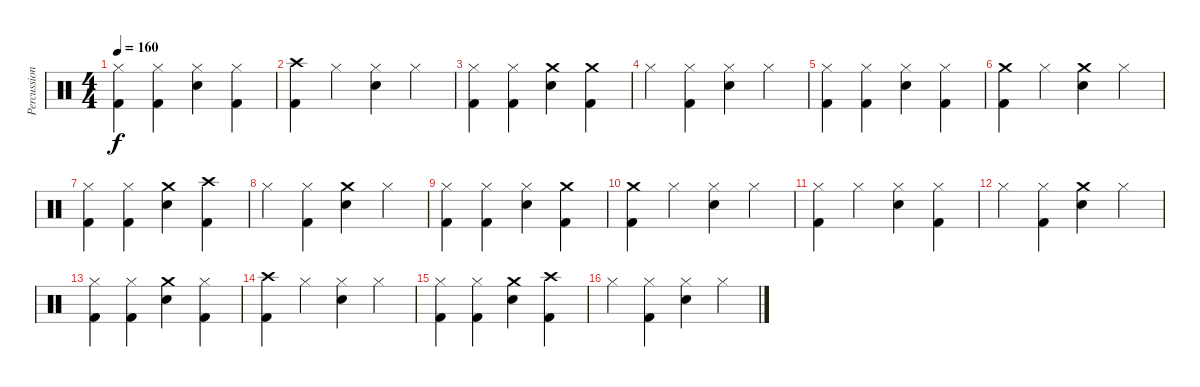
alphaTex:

\track ("Percussion" "Percussion") {instrument percussion}
\staff {score}
\articulation defaults
\ts (4 4)
\tempo 160
\clef neutral
\ks c
("Hi-Hat (closed)" "Kick (hit) 2").4{dy f} ("Hi-Hat (closed)" "Kick (hit) 2").4 ("Hi-Hat (closed)" "Snare (hit) 2").4 ("Hi-Hat (closed)" "Kick (hit) 2").4 |
("Crash high (hit)" "Kick (hit) 2").4 "Hi-Hat (closed)".4 ("Hi-Hat (closed)" "Snare (hit) 2").4 "Hi-Hat (closed)".4 |
("Hi-Hat (closed)" "Kick (hit) 2").4 ("Hi-Hat (closed)" "Kick (hit) 2").4 ("Crash medium (hit)" "Snare (hit) 2").4 ("Crash medium (hit)" "Kick (hit) 2").4 |
"Hi-Hat (closed)".4 ("Hi-Hat (closed)" "Kick (hit) 2").4 ("Hi-Hat (closed)" "Snare (hit) 2").4 "Hi-Hat (closed)".4 |
("Hi-Hat (closed)" "Kick (hit) 2").4 ("Hi-Hat (closed)" "Kick (hit) 2").4 ("Hi-Hat (closed)" "Snare (hit) 2").4 ("Hi-Hat (closed)" "Kick (hit) 2").4 |
("Crash medium (hit)" "Kick (hit) 2").4 "Hi-Hat (closed)".4 ("Crash medium (hit)" "Snare (hit) 2").4 "Hi-Hat (closed)".4 |
("Hi-Hat (closed)" "Kick (hit) 2").4 ("Hi-Hat (closed)" "Kick (hit) 2").4 ("Crash medium (hit)" "Snare (hit) 2").4 ("Crash high (hit)" "Kick (hit) 2").4 |
"Hi-Hat (closed)".4 ("Hi-Hat (closed)" "Kick (hit) 2").4 ("Crash medium (hit)" "Snare (hit) 2").4 "Hi-Hat (closed)".4 |
("Hi-Hat (closed)" "Kick (hit) 2").4 ("Hi-Hat (closed)" "Kick (hit) 2").4 ("Hi-Hat (closed)" "Snare (hit) 2").4 ("Crash medium (hit)" "Kick (hit) 2").4 |
("Crash medium (hit)" "Kick (hit) 2").4 "Hi-Hat (closed)".4 ("Hi-Hat (closed)" "Snare (hit) 2").4 "Hi-Hat (closed)".4 |
("Hi-Hat (closed)" "Kick (hit) 2").4 "Hi-Hat (closed)".4 ("Hi-Hat (closed)" "Snare (hit) 2").4 ("Hi-Hat (closed)" "Kick (hit) 2").4 |
"Hi-Hat (closed)".4 ("Hi-Hat (closed)" "Kick (hit) 2").4 ("Crash medium (hit)" "Snare (hit) 2").4 "Hi-Hat (closed)".4 |
("Hi-Hat (closed)" "Kick (hit) 2").4 ("Hi-Hat (closed)" "Kick (hit) 2").4 ("Crash medium (hit)" "Snare (hit) 2").4 ("Hi-Hat (closed)" "Kick (hit) 2").4 |
("Crash high (hit)" "Kick (hit) 2").4 "Hi-Hat (closed)".4 ("Hi-Hat (closed)" "Snare (hit) 2").4 "Hi-Hat (closed)".4 |
("Hi-Hat (closed)" "Kick (hit) 2").4 ("Hi-Hat (closed)" "Kick (hit) 2").4 ("Crash medium (hit)" "Snare (hit) 2").4 ("Crash high (hit)" "Kick (hit) 2").4 |
"Hi-Hat (closed)".4 ("Hi-Hat (closed)" "Kick (hit) 2").4 ("Hi-Hat (closed)" "Snare (hit) 2").4 "Hi-Hat (closed)".4
